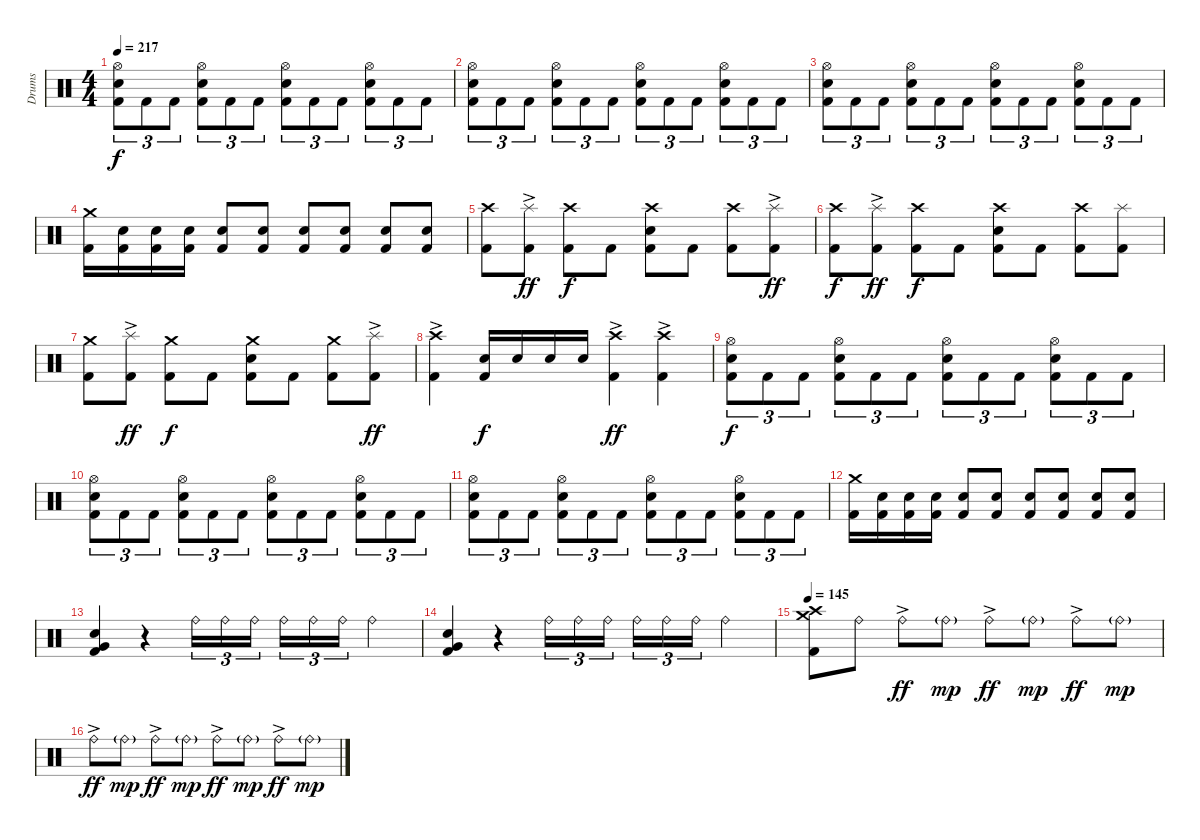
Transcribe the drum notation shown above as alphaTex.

\track ("Drums" "Drums") {instrument percussion}
\staff {score}
\articulation defaults
\ts (4 4)
\tempo 217
\clef neutral
\ks c
("Hi-Hat (open)" "Electric Snare (hit)" "Kick (hit) 2").8{tu (3 2) dy f} "Kick (hit) 2".8{tu (3 2)} "Kick (hit) 2".8{tu (3 2)} ("Hi-Hat (open)" "Electric Snare (hit)" "Kick (hit) 2").8{tu (3 2)} "Kick (hit) 2".8{tu (3 2)} "Kick (hit) 2".8{tu (3 2)} ("Hi-Hat (open)" "Electric Snare (hit)" "Kick (hit) 2").8{tu (3 2)} "Kick (hit) 2".8{tu (3 2)} "Kick (hit) 2".8{tu (3 2)} ("Hi-Hat (open)" "Electric Snare (hit)" "Kick (hit) 2").8{tu (3 2)} "Kick (hit) 2".8{tu (3 2)} "Kick (hit) 2".8{tu (3 2)} |
("Hi-Hat (open)" "Electric Snare (hit)" "Kick (hit) 2").8{tu (3 2)} "Kick (hit) 2".8{tu (3 2)} "Kick (hit) 2".8{tu (3 2)} ("Hi-Hat (open)" "Electric Snare (hit)" "Kick (hit) 2").8{tu (3 2)} "Kick (hit) 2".8{tu (3 2)} "Kick (hit) 2".8{tu (3 2)} ("Hi-Hat (open)" "Electric Snare (hit)" "Kick (hit) 2").8{tu (3 2)} "Kick (hit) 2".8{tu (3 2)} "Kick (hit) 2".8{tu (3 2)} ("Hi-Hat (open)" "Electric Snare (hit)" "Kick (hit) 2").8{tu (3 2)} "Kick (hit) 2".8{tu (3 2)} "Kick (hit) 2".8{tu (3 2)} |
("Hi-Hat (open)" "Electric Snare (hit)" "Kick (hit) 2").8{tu (3 2)} "Kick (hit) 2".8{tu (3 2)} "Kick (hit) 2".8{tu (3 2)} ("Hi-Hat (open)" "Electric Snare (hit)" "Kick (hit) 2").8{tu (3 2)} "Kick (hit) 2".8{tu (3 2)} "Kick (hit) 2".8{tu (3 2)} ("Hi-Hat (open)" "Electric Snare (hit)" "Kick (hit) 2").8{tu (3 2)} "Kick (hit) 2".8{tu (3 2)} "Kick (hit) 2".8{tu (3 2)} ("Hi-Hat (open)" "Electric Snare (hit)" "Kick (hit) 2").8{tu (3 2)} "Kick (hit) 2".8{tu (3 2)} "Kick (hit) 2".8{tu (3 2)} |
("Crash medium (hit)" "Kick (hit) 2").16 ("Electric Snare (hit)" "Kick (hit) 2").16 ("Electric Snare (hit)" "Kick (hit) 2").16 ("Electric Snare (hit)" "Kick (hit) 2").16 ("Electric Snare (hit)" "Kick (hit) 2").8 ("Electric Snare (hit)" "Kick (hit) 2").8 ("Electric Snare (hit)" "Kick (hit) 2").8 ("Electric Snare (hit)" "Kick (hit) 2").8 ("Electric Snare (hit)" "Kick (hit) 2").8 ("Electric Snare (hit)" "Kick (hit) 2").8 |
("Crash high (hit)" "Kick (hit) 2").8 ("Splash (hit)"{ac} "Kick (hit) 2").8{dy ff} ("Crash high (hit)" "Kick (hit) 2").8{dy f} "Kick (hit) 2".8 ("Crash high (hit)" "Electric Snare (hit)" "Kick (hit) 2").8 "Kick (hit) 2".8 ("Crash high (hit)" "Kick (hit) 2").8 ("Splash (hit)"{ac} "Kick (hit) 2").8{dy ff} |
("Crash high (hit)" "Kick (hit) 2").8{dy f} ("Splash (hit)"{ac} "Kick (hit) 2").8{dy ff} ("Crash high (hit)" "Kick (hit) 2").8{dy f} "Kick (hit) 2".8 ("Crash high (hit)" "Electric Snare (hit)" "Kick (hit) 2").8 "Kick (hit) 2".8 ("Crash high (hit)" "Kick (hit) 2").8 ("Splash (hit)" "Kick (hit) 2").8 |
("Crash medium (hit)" "Kick (hit) 2").8 ("Splash (hit)"{ac} "Kick (hit) 2").8{dy ff} ("Crash medium (hit)" "Kick (hit) 2").8{dy f} "Kick (hit) 2".8 ("Crash medium (hit)" "Electric Snare (hit)" "Kick (hit) 2").8 "Kick (hit) 2".8 ("Crash medium (hit)" "Kick (hit) 2").8 ("Splash (hit)"{ac} "Kick (hit) 2").8{dy ff} |
("Crash high (hit)" "Kick (hit) 2"{ac}).4 ("Electric Snare (hit)" "Kick (hit) 2").16{dy f} "Electric Snare (hit)".16 "Electric Snare (hit)".16 "Electric Snare (hit)".16 ("Crash high (hit)" "Kick (hit) 2"{ac}).4{dy ff} ("Crash high (hit)" "Kick (hit) 2"{ac}).4 |
("Hi-Hat (open)" "Electric Snare (hit)" "Kick (hit) 2").8{tu (3 2) dy f} "Kick (hit) 2".8{tu (3 2)} "Kick (hit) 2".8{tu (3 2)} ("Hi-Hat (open)" "Electric Snare (hit)" "Kick (hit) 2").8{tu (3 2)} "Kick (hit) 2".8{tu (3 2)} "Kick (hit) 2".8{tu (3 2)} ("Hi-Hat (open)" "Electric Snare (hit)" "Kick (hit) 2").8{tu (3 2)} "Kick (hit) 2".8{tu (3 2)} "Kick (hit) 2".8{tu (3 2)} ("Hi-Hat (open)" "Electric Snare (hit)" "Kick (hit) 2").8{tu (3 2)} "Kick (hit) 2".8{tu (3 2)} "Kick (hit) 2".8{tu (3 2)} |
("Hi-Hat (open)" "Electric Snare (hit)" "Kick (hit) 2").8{tu (3 2)} "Kick (hit) 2".8{tu (3 2)} "Kick (hit) 2".8{tu (3 2)} ("Hi-Hat (open)" "Electric Snare (hit)" "Kick (hit) 2").8{tu (3 2)} "Kick (hit) 2".8{tu (3 2)} "Kick (hit) 2".8{tu (3 2)} ("Hi-Hat (open)" "Electric Snare (hit)" "Kick (hit) 2").8{tu (3 2)} "Kick (hit) 2".8{tu (3 2)} "Kick (hit) 2".8{tu (3 2)} ("Hi-Hat (open)" "Electric Snare (hit)" "Kick (hit) 2").8{tu (3 2)} "Kick (hit) 2".8{tu (3 2)} "Kick (hit) 2".8{tu (3 2)} |
("Hi-Hat (open)" "Electric Snare (hit)" "Kick (hit) 2").8{tu (3 2)} "Kick (hit) 2".8{tu (3 2)} "Kick (hit) 2".8{tu (3 2)} ("Hi-Hat (open)" "Electric Snare (hit)" "Kick (hit) 2").8{tu (3 2)} "Kick (hit) 2".8{tu (3 2)} "Kick (hit) 2".8{tu (3 2)} ("Hi-Hat (open)" "Electric Snare (hit)" "Kick (hit) 2").8{tu (3 2)} "Kick (hit) 2".8{tu (3 2)} "Kick (hit) 2".8{tu (3 2)} ("Hi-Hat (open)" "Electric Snare (hit)" "Kick (hit) 2").8{tu (3 2)} "Kick (hit) 2".8{tu (3 2)} "Kick (hit) 2".8{tu (3 2)} |
("Crash medium (hit)" "Kick (hit) 2").16 ("Electric Snare (hit)" "Kick (hit) 2").16 ("Electric Snare (hit)" "Kick (hit) 2").16 ("Electric Snare (hit)" "Kick (hit) 2").16 ("Electric Snare (hit)" "Kick (hit) 2").8 ("Electric Snare (hit)" "Kick (hit) 2").8 ("Electric Snare (hit)" "Kick (hit) 2").8 ("Electric Snare (hit)" "Kick (hit) 2").8 ("Electric Snare (hit)" "Kick (hit) 2").8 ("Electric Snare (hit)" "Kick (hit) 2").8 |
("Electric Snare (hit)" "Very Low Tom (hit)" "Kick (hit) 2").4 r.4 "Ride (bell)".16{tu (3 2)} "Ride (bell)".16{tu (3 2)} "Ride (bell)".16{tu (3 2) beam splitsecondary} "Ride (bell)".16{tu (3 2)} "Ride (bell)".16{tu (3 2)} "Ride (bell)".16{tu (3 2)} "Ride (bell)".4 |
("Electric Snare (hit)" "Very Low Tom (hit)" "Kick (hit) 2").4 r.4 "Ride (bell)".16{tu (3 2)} "Ride (bell)".16{tu (3 2)} "Ride (bell)".16{tu (3 2) beam splitsecondary} "Ride (bell)".16{tu (3 2)} "Ride (bell)".16{tu (3 2)} "Ride (bell)".16{tu (3 2)} "Ride (bell)".4 |
\tempo 145
("Crash medium (hit)" "Crash high (hit)" "Kick (hit) 2").8 "Ride (bell)".8 "Ride (bell)"{ac}.8{dy ff} "Ride (bell)"{g}.8{dy mp} "Ride (bell)"{ac}.8{dy ff} "Ride (bell)"{g}.8{dy mp} "Ride (bell)"{ac}.8{dy ff} "Ride (bell)"{g}.8{dy mp} |
"Ride (bell)"{ac}.8{dy ff} "Ride (bell)"{g}.8{dy mp} "Ride (bell)"{ac}.8{dy ff} "Ride (bell)"{g}.8{dy mp} "Ride (bell)"{ac}.8{dy ff} "Ride (bell)"{g}.8{dy mp} "Ride (bell)"{ac}.8{dy ff} "Ride (bell)"{g}.8{dy mp}
